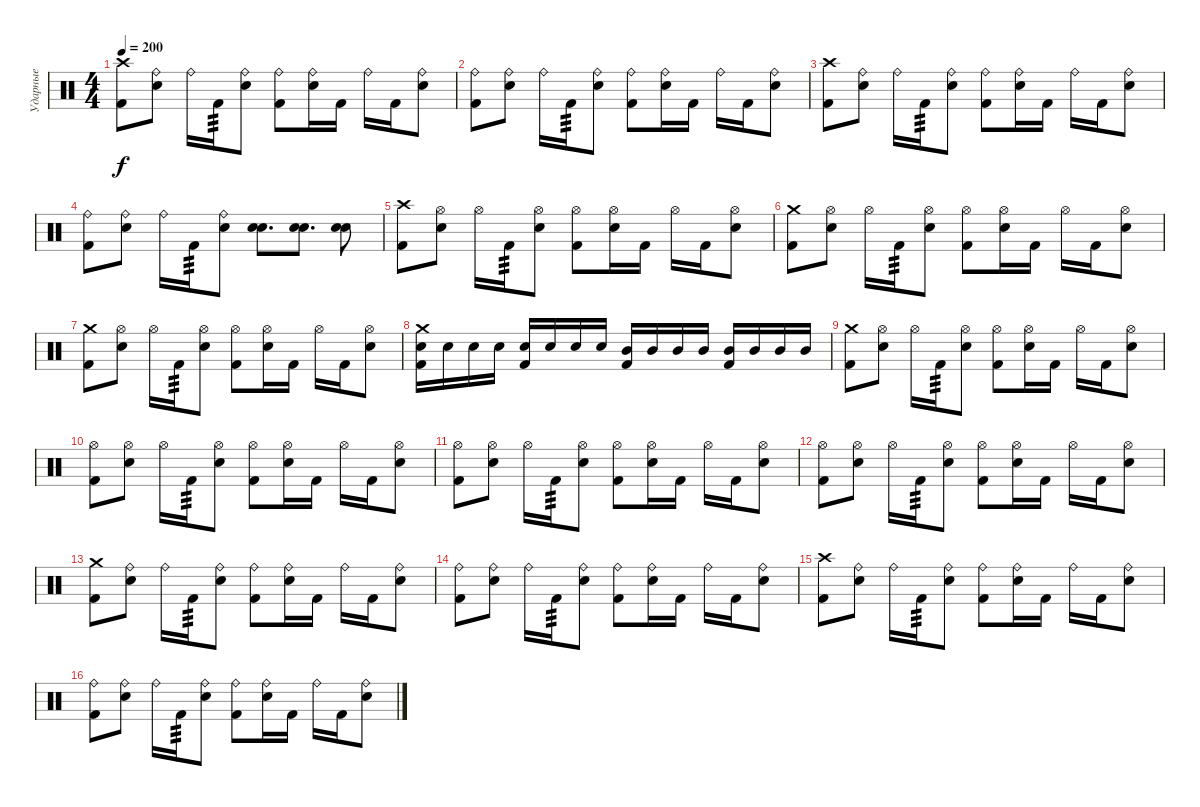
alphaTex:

\track ("Ударные" "Ударные") {instrument percussion}
\staff {score}
\articulation defaults
\ts (4 4)
\tempo 200
\clef neutral
\ks c
("Kick (hit) 2" "Crash high (hit)").8{dy f} ("Electric Snare (hit)" "Ride (bell)").8 "Ride (bell)".16 "Kick (hit) 2".16{tp 3} ("Electric Snare (hit)" "Ride (bell)").8 ("Kick (hit) 2" "Ride (bell)").8 ("Electric Snare (hit)" "Ride (bell)").16 "Kick (hit) 2".16 "Ride (bell)".16 "Kick (hit) 2".16 ("Electric Snare (hit)" "Ride (bell)").8 |
("Kick (hit) 2" "Ride (bell)").8 ("Electric Snare (hit)" "Ride (bell)").8 "Ride (bell)".16 "Kick (hit) 2".16{tp 3} ("Electric Snare (hit)" "Ride (bell)").8 ("Kick (hit) 2" "Ride (bell)").8 ("Electric Snare (hit)" "Ride (bell)").16 "Kick (hit) 2".16 "Ride (bell)".16 "Kick (hit) 2".16 ("Electric Snare (hit)" "Ride (bell)").8 |
("Kick (hit) 2" "Crash high (hit)").8 ("Electric Snare (hit)" "Ride (bell)").8 "Ride (bell)".16 "Kick (hit) 2".16{tp 3} ("Electric Snare (hit)" "Ride (bell)").8 ("Kick (hit) 2" "Ride (bell)").8 ("Electric Snare (hit)" "Ride (bell)").16 "Kick (hit) 2".16 "Ride (bell)".16 "Kick (hit) 2".16 ("Electric Snare (hit)" "Ride (bell)").8 |
("Kick (hit) 2" "Ride (bell)").8 ("Electric Snare (hit)" "Ride (bell)").8 "Ride (bell)".16 "Kick (hit) 2".16{tp 3} ("Electric Snare (hit)" "Ride (bell)").8 ("Electric Snare (hit)" "Electric Snare (hit)").8{d} ("Electric Snare (hit)" "Electric Snare (hit)").8{d} ("Electric Snare (hit)" "Electric Snare (hit)").8 |
("Kick (hit) 2" "Crash high (hit)").8 ("Electric Snare (hit)" "Hi-Hat (open)").8 "Hi-Hat (open)".16 "Kick (hit) 2".16{tp 3} ("Electric Snare (hit)" "Hi-Hat (open)").8 ("Kick (hit) 2" "Hi-Hat (open)").8 ("Electric Snare (hit)" "Hi-Hat (open)").16 "Kick (hit) 2".16 "Hi-Hat (open)".16 "Kick (hit) 2".16 ("Electric Snare (hit)" "Hi-Hat (open)").8 |
("Kick (hit) 2" "Crash medium (hit)").8 ("Electric Snare (hit)" "Hi-Hat (open)").8 "Hi-Hat (open)".16 "Kick (hit) 2".16{tp 3} ("Electric Snare (hit)" "Hi-Hat (open)").8 ("Kick (hit) 2" "Hi-Hat (open)").8 ("Electric Snare (hit)" "Hi-Hat (open)").16 "Kick (hit) 2".16 "Hi-Hat (open)".16 "Kick (hit) 2".16 ("Electric Snare (hit)" "Hi-Hat (open)").8 |
("Kick (hit) 2" "Crash medium (hit)").8 ("Electric Snare (hit)" "Hi-Hat (open)").8 "Hi-Hat (open)".16 "Kick (hit) 2".16{tp 3} ("Electric Snare (hit)" "Hi-Hat (open)").8 ("Kick (hit) 2" "Hi-Hat (open)").8 ("Electric Snare (hit)" "Hi-Hat (open)").16 "Kick (hit) 2".16 "Hi-Hat (open)".16 "Kick (hit) 2".16 ("Electric Snare (hit)" "Hi-Hat (open)").8 |
("Crash medium (hit)" "Kick (hit) 2" "Electric Snare (hit)").16 "Electric Snare (hit)".16 "Electric Snare (hit)".16 "Electric Snare (hit)".16 ("Kick (hit) 2" "Electric Snare (hit)").16 "Electric Snare (hit)".16 "Electric Snare (hit)".16 "Electric Snare (hit)".16 ("Kick (hit) 2" "Mid Tom (hit)").16 "Mid Tom (hit)".16 "Mid Tom (hit)".16 "Mid Tom (hit)".16 ("Kick (hit) 2" "Mid Tom (hit)").16 "Mid Tom (hit)".16 "Mid Tom (hit)".16 "Mid Tom (hit)".16 |
("Kick (hit) 2" "Crash medium (hit)").8 ("Electric Snare (hit)" "Hi-Hat (open)").8 "Hi-Hat (open)".16 "Kick (hit) 2".16{tp 3} ("Electric Snare (hit)" "Hi-Hat (open)").8 ("Kick (hit) 2" "Hi-Hat (open)").8 ("Electric Snare (hit)" "Hi-Hat (open)").16 "Kick (hit) 2".16 "Hi-Hat (open)".16 "Kick (hit) 2".16 ("Electric Snare (hit)" "Hi-Hat (open)").8 |
("Kick (hit) 2" "Hi-Hat (open)").8 ("Electric Snare (hit)" "Hi-Hat (open)").8 "Hi-Hat (open)".16 "Kick (hit) 2".16{tp 3} ("Electric Snare (hit)" "Hi-Hat (open)").8 ("Kick (hit) 2" "Hi-Hat (open)").8 ("Electric Snare (hit)" "Hi-Hat (open)").16 "Kick (hit) 2".16 "Hi-Hat (open)".16 "Kick (hit) 2".16 ("Electric Snare (hit)" "Hi-Hat (open)").8 |
("Kick (hit) 2" "Hi-Hat (open)").8 ("Electric Snare (hit)" "Hi-Hat (open)").8 "Hi-Hat (open)".16 "Kick (hit) 2".16{tp 3} ("Electric Snare (hit)" "Hi-Hat (open)").8 ("Kick (hit) 2" "Hi-Hat (open)").8 ("Electric Snare (hit)" "Hi-Hat (open)").16 "Kick (hit) 2".16 "Hi-Hat (open)".16 "Kick (hit) 2".16 ("Electric Snare (hit)" "Hi-Hat (open)").8 |
("Kick (hit) 2" "Hi-Hat (open)").8 ("Electric Snare (hit)" "Hi-Hat (open)").8 "Hi-Hat (open)".16 "Kick (hit) 2".16{tp 3} ("Electric Snare (hit)" "Hi-Hat (open)").8 ("Kick (hit) 2" "Hi-Hat (open)").8 ("Electric Snare (hit)" "Hi-Hat (open)").16 "Kick (hit) 2".16 "Hi-Hat (open)".16 "Kick (hit) 2".16 ("Electric Snare (hit)" "Hi-Hat (open)").8 |
("Kick (hit) 2" "Crash medium (hit)").8 ("Electric Snare (hit)" "Ride (bell)").8 "Ride (bell)".16 "Kick (hit) 2".16{tp 3} ("Electric Snare (hit)" "Ride (bell)").8 ("Kick (hit) 2" "Ride (bell)").8 ("Electric Snare (hit)" "Ride (bell)").16 "Kick (hit) 2".16 "Ride (bell)".16 "Kick (hit) 2".16 ("Electric Snare (hit)" "Ride (bell)").8 |
("Kick (hit) 2" "Ride (bell)").8 ("Electric Snare (hit)" "Ride (bell)").8 "Ride (bell)".16 "Kick (hit) 2".16{tp 3} ("Electric Snare (hit)" "Ride (bell)").8 ("Kick (hit) 2" "Ride (bell)").8 ("Electric Snare (hit)" "Ride (bell)").16 "Kick (hit) 2".16 "Ride (bell)".16 "Kick (hit) 2".16 ("Electric Snare (hit)" "Ride (bell)").8 |
("Kick (hit) 2" "Crash high (hit)").8 ("Electric Snare (hit)" "Ride (bell)").8 "Ride (bell)".16 "Kick (hit) 2".16{tp 3} ("Electric Snare (hit)" "Ride (bell)").8 ("Kick (hit) 2" "Ride (bell)").8 ("Electric Snare (hit)" "Ride (bell)").16 "Kick (hit) 2".16 "Ride (bell)".16 "Kick (hit) 2".16 ("Electric Snare (hit)" "Ride (bell)").8 |
("Kick (hit) 2" "Ride (bell)").8 ("Electric Snare (hit)" "Ride (bell)").8 "Ride (bell)".16 "Kick (hit) 2".16{tp 3} ("Electric Snare (hit)" "Ride (bell)").8 ("Kick (hit) 2" "Ride (bell)").8 ("Electric Snare (hit)" "Ride (bell)").16 "Kick (hit) 2".16 "Ride (bell)".16 "Kick (hit) 2".16 ("Electric Snare (hit)" "Ride (bell)").8
